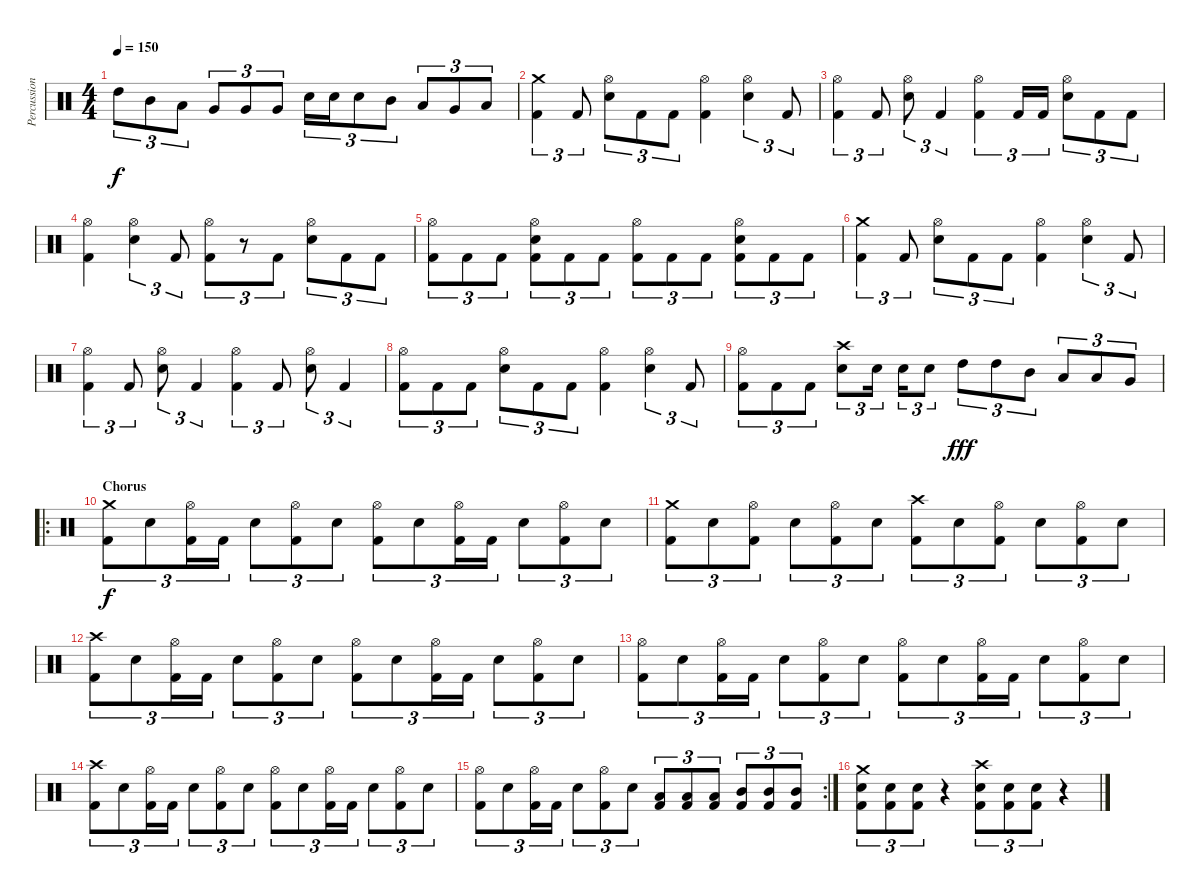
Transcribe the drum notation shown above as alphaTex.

\track ("Percussion" "Percussion") {instrument percussion}
\staff {score}
\articulation defaults
\ts (4 4)
\tempo 150
\clef neutral
\ks c "High Tom (hit)".8{tu (3 2) dy f} "Mid Tom (hit)".8{tu (3 2)} "Low Tom (hit)".8{tu (3 2)} "Very Low Tom (hit)".8{tu (3 2)} "Very Low Tom (hit)".8{tu (3 2)} "Very Low Tom (hit)".8{tu (3 2)} "Electric Snare (hit)".16{tu (3 2)} "Electric Snare (hit)".16{tu (3 2)} "Electric Snare (hit)".8{tu (3 2)} "Mid Tom (hit)".8{tu (3 2)} "Low Tom (hit)".8{tu (3 2)} "Very Low Tom (hit)".8{tu (3 2)} "Low Floor Tom (hit)".8{tu (3 2)}
|
("Kick (hit) 2" "Crash medium (hit)").4{tu (3 2)} "Kick (hit) 2".8{tu (3 2)} ("Electric Snare (hit)" "Hi-Hat (open)").8{tu (3 2)} "Kick (hit) 2".8{tu (3 2)} "Kick (hit) 2".8{tu (3 2)} ("Kick (hit) 2" "Hi-Hat (open)").4 ("Electric Snare (hit)" "Hi-Hat (open)").4{tu (3 2)} "Kick (hit) 2".8{tu (3 2)} |
("Kick (hit) 2" "Hi-Hat (open)").4{tu (3 2)} "Kick (hit) 2".8{tu (3 2)} ("Electric Snare (hit)" "Hi-Hat (open)").8{tu (3 2)} "Kick (hit) 2".4{tu (3 2)} ("Kick (hit) 2" "Hi-Hat (open)").4{tu (3 2)} "Kick (hit) 2".16{tu (3 2)} "Kick (hit) 2".16{tu (3 2)} ("Electric Snare (hit)" "Hi-Hat (open)").8{tu (3 2)} "Kick (hit) 2".8{tu (3 2)} "Kick (hit) 2".8{tu (3 2)} |
("Kick (hit) 2" "Hi-Hat (open)").4 ("Electric Snare (hit)" "Hi-Hat (open)").4{tu (3 2)} "Kick (hit) 2".8{tu (3 2)} ("Kick (hit) 2" "Hi-Hat (open)").8{tu (3 2)} r.8{tu (3 2)} "Kick (hit) 2".8{tu (3 2)} ("Electric Snare (hit)" "Hi-Hat (open)").8{tu (3 2)} "Kick (hit) 2".8{tu (3 2)} "Kick (hit) 2".8{tu (3 2)} |
("Kick (hit) 2" "Hi-Hat (open)").8{tu (3 2)} "Kick (hit) 2".8{tu (3 2)} "Kick (hit) 2".8{tu (3 2)} ("Kick (hit) 2" "Electric Snare (hit)" "Hi-Hat (open)").8{tu (3 2)} "Kick (hit) 2".8{tu (3 2)} "Kick (hit) 2".8{tu (3 2)} ("Kick (hit) 2" "Hi-Hat (open)").8{tu (3 2)} "Kick (hit) 2".8{tu (3 2)} "Kick (hit) 2".8{tu (3 2)} ("Kick (hit) 2" "Electric Snare (hit)" "Hi-Hat (open)").8{tu (3 2)} "Kick (hit) 2".8{tu (3 2)} "Kick (hit) 2".8{tu (3 2)} |
("Kick (hit) 2" "Crash medium (hit)").4{tu (3 2)} "Kick (hit) 2".8{tu (3 2)} ("Electric Snare (hit)" "Hi-Hat (open)").8{tu (3 2)} "Kick (hit) 2".8{tu (3 2)} "Kick (hit) 2".8{tu (3 2)} ("Kick (hit) 2" "Hi-Hat (open)").4 ("Electric Snare (hit)" "Hi-Hat (open)").4{tu (3 2)} "Kick (hit) 2".8{tu (3 2)} |
("Kick (hit) 2" "Hi-Hat (open)").4{tu (3 2)} "Kick (hit) 2".8{tu (3 2)} ("Electric Snare (hit)" "Hi-Hat (open)").8{tu (3 2)} "Kick (hit) 2".4{tu (3 2)} ("Kick (hit) 2" "Hi-Hat (open)").4{tu (3 2)} "Kick (hit) 2".8{tu (3 2)} ("Electric Snare (hit)" "Hi-Hat (open)").8{tu (3 2)} "Kick (hit) 2".4{tu (3 2)} |
("Kick (hit) 2" "Hi-Hat (open)").8{tu (3 2)} "Kick (hit) 2".8{tu (3 2)} "Kick (hit) 2".8{tu (3 2)} ("Electric Snare (hit)" "Hi-Hat (open)").8{tu (3 2)} "Kick (hit) 2".8{tu (3 2)} "Kick (hit) 2".8{tu (3 2)} ("Kick (hit) 2" "Hi-Hat (open)").4 ("Electric Snare (hit)" "Hi-Hat (open)").4{tu (3 2)} "Kick (hit) 2".8{tu (3 2)} |
("Kick (hit) 2" "Hi-Hat (open)").8{tu (3 2)} "Kick (hit) 2".8{tu (3 2)} "Kick (hit) 2".8{tu (3 2)} ("Electric Snare (hit)" "Crash high (hit)").8{tu (3 2)} "Electric Snare (hit)".16{tu (3 2)} "Electric Snare (hit)".16{tu (3 2)} "Electric Snare (hit)".8{tu (3 2)} "High Tom (hit)".8{tu (3 2) dy fff} "High Tom (hit)".8{tu (3 2)} "Mid Tom (hit)".8{tu (3 2)} "Low Tom (hit)".8{tu (3 2)} "Low Tom (hit)".8{tu (3 2)} "Very Low Tom (hit)".8{tu (3 2)} |
\ro
\section ("" "Chorus")
("Kick (hit) 2" "Crash medium (hit)").8{tu (3 2) dy f} "Electric Snare (hit)".8{tu (3 2)} ("Kick (hit) 2" "Hi-Hat (open)").16{tu (3 2)} "Kick (hit) 2".16{tu (3 2)} "Electric Snare (hit)".8{tu (3 2)} ("Kick (hit) 2" "Hi-Hat (open)").8{tu (3 2)} "Electric Snare (hit)".8{tu (3 2)} ("Kick (hit) 2" "Hi-Hat (open)").8{tu (3 2)} "Electric Snare (hit)".8{tu (3 2)} ("Kick (hit) 2" "Hi-Hat (open)").16{tu (3 2)} "Kick (hit) 2".16{tu (3 2)} "Electric Snare (hit)".8{tu (3 2)} ("Kick (hit) 2" "Hi-Hat (open)").8{tu (3 2)} "Electric Snare (hit)".8{tu (3 2)} |
("Kick (hit) 2" "Crash medium (hit)").8{tu (3 2)} "Electric Snare (hit)".8{tu (3 2)} ("Kick (hit) 2" "Hi-Hat (open)").8{tu (3 2)} "Electric Snare (hit)".8{tu (3 2)} ("Kick (hit) 2" "Hi-Hat (open)").8{tu (3 2)} "Electric Snare (hit)".8{tu (3 2)} ("Kick (hit) 2" "Crash high (hit)").8{tu (3 2)} "Electric Snare (hit)".8{tu (3 2)} ("Kick (hit) 2" "Hi-Hat (open)").8{tu (3 2)} "Electric Snare (hit)".8{tu (3 2)} ("Kick (hit) 2" "Hi-Hat (open)").8{tu (3 2)} "Electric Snare (hit)".8{tu (3 2)} |
("Kick (hit) 2" "Crash high (hit)").8{tu (3 2)} "Electric Snare (hit)".8{tu (3 2)} ("Kick (hit) 2" "Hi-Hat (open)").16{tu (3 2)} "Kick (hit) 2".16{tu (3 2)} "Electric Snare (hit)".8{tu (3 2)} ("Kick (hit) 2" "Hi-Hat (open)").8{tu (3 2)} "Electric Snare (hit)".8{tu (3 2)} ("Kick (hit) 2" "Hi-Hat (open)").8{tu (3 2)} "Electric Snare (hit)".8{tu (3 2)} ("Kick (hit) 2" "Hi-Hat (open)").16{tu (3 2)} "Kick (hit) 2".16{tu (3 2)} "Electric Snare (hit)".8{tu (3 2)} ("Kick (hit) 2" "Hi-Hat (open)").8{tu (3 2)} "Electric Snare (hit)".8{tu (3 2)} |
("Kick (hit) 2" "Hi-Hat (open)").8{tu (3 2)} "Electric Snare (hit)".8{tu (3 2)} ("Kick (hit) 2" "Hi-Hat (open)").16{tu (3 2)} "Kick (hit) 2".16{tu (3 2)} "Electric Snare (hit)".8{tu (3 2)} ("Kick (hit) 2" "Hi-Hat (open)").8{tu (3 2)} "Electric Snare (hit)".8{tu (3 2)} ("Kick (hit) 2" "Hi-Hat (open)").8{tu (3 2)} "Electric Snare (hit)".8{tu (3 2)} ("Kick (hit) 2" "Hi-Hat (open)").16{tu (3 2)} "Kick (hit) 2".16{tu (3 2)} "Electric Snare (hit)".8{tu (3 2)} ("Kick (hit) 2" "Hi-Hat (open)").8{tu (3 2)} "Electric Snare (hit)".8{tu (3 2)} |
("Kick (hit) 2" "Crash high (hit)").8{tu (3 2)} "Electric Snare (hit)".8{tu (3 2)} ("Kick (hit) 2" "Hi-Hat (open)").16{tu (3 2)} "Kick (hit) 2".16{tu (3 2)} "Electric Snare (hit)".8{tu (3 2)} ("Kick (hit) 2" "Hi-Hat (open)").8{tu (3 2)} "Electric Snare (hit)".8{tu (3 2)} ("Kick (hit) 2" "Hi-Hat (open)").8{tu (3 2)} "Electric Snare (hit)".8{tu (3 2)} ("Kick (hit) 2" "Hi-Hat (open)").16{tu (3 2)} "Kick (hit) 2".16{tu (3 2)} "Electric Snare (hit)".8{tu (3 2)} ("Kick (hit) 2" "Hi-Hat (open)").8{tu (3 2)} "Electric Snare (hit)".8{tu (3 2)} |
\rc 2
("Kick (hit) 2" "Hi-Hat (open)").8{tu (3 2)} "Electric Snare (hit)".8{tu (3 2)} ("Kick (hit) 2" "Hi-Hat (open)").16{tu (3 2)} "Kick (hit) 2".16{tu (3 2)} "Electric Snare (hit)".8{tu (3 2)} ("Kick (hit) 2" "Hi-Hat (open)").8{tu (3 2)} "Electric Snare (hit)".8{tu (3 2)} ("Kick (hit) 2" "Low Tom (hit)").8{tu (3 2)} ("Kick (hit) 2" "Low Tom (hit)").8{tu (3 2)} ("Kick (hit) 2" "Low Tom (hit)").8{tu (3 2)} ("Kick (hit) 2" "Mid Tom (hit)").8{tu (3 2)} ("Kick (hit) 2" "Mid Tom (hit)").8{tu (3 2)} ("Kick (hit) 2" "Mid Tom (hit)").8{tu (3 2)} |
("Kick (hit) 2" "Electric Snare (hit)" "Crash medium (hit)").8{tu (3 2)} ("Kick (hit) 2" "Electric Snare (hit)").8{tu (3 2)} ("Kick (hit) 2" "Electric Snare (hit)").8{tu (3 2)} r.4 ("Kick (hit) 2" "Electric Snare (hit)" "Crash high (hit)").8{tu (3 2)} ("Kick (hit) 2" "Electric Snare (hit)").8{tu (3 2)} ("Kick (hit) 2" "Electric Snare (hit)").8{tu (3 2)} r.4
